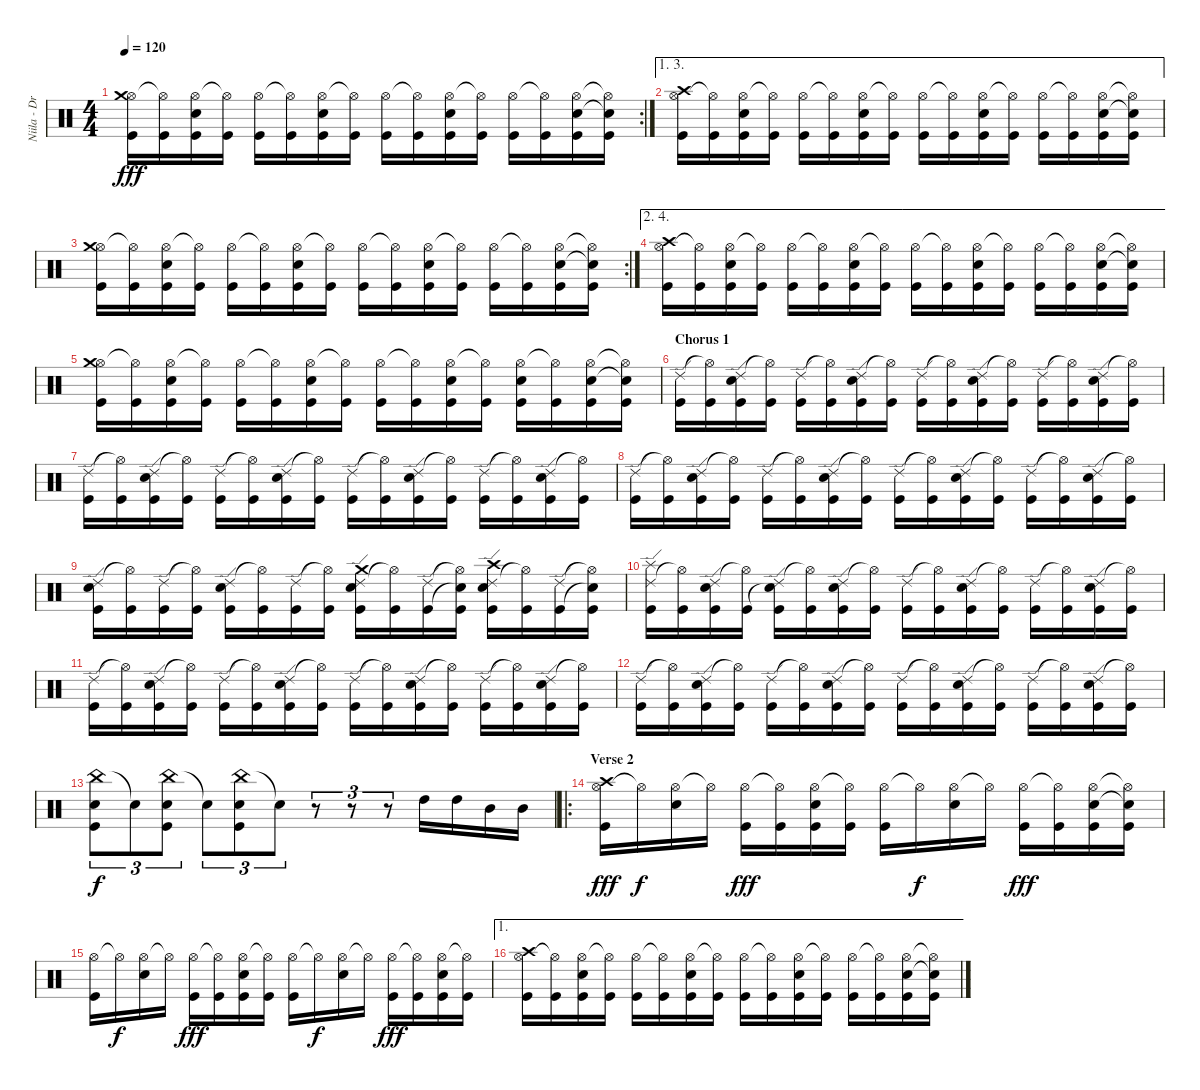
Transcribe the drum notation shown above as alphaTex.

\track ("Niila - Drums" "Niila - Dr") {instrument percussion}
\staff {score}
\articulation defaults
\rc 2
\ts (4 4)
\tempo 120
\clef neutral
\ks c
("Hi-Hat (open)" "Crash medium (hit)" "Kick (hit)").16{dy fff} ("Hi-Hat (open)"{t} "Kick (hit)").16 ("Hi-Hat (open)" "Snare (hit) 2" "Kick (hit)").16 ("Hi-Hat (open)"{t} "Kick (hit)").16 ("Hi-Hat (open)" "Kick (hit)").16 ("Hi-Hat (open)"{t} "Kick (hit)").16 ("Hi-Hat (open)" "Snare (hit) 2" "Kick (hit)").16 ("Hi-Hat (open)"{t} "Kick (hit)").16 ("Hi-Hat (open)" "Kick (hit)").16 ("Hi-Hat (open)"{t} "Kick (hit)").16 ("Hi-Hat (open)" "Snare (hit) 2" "Kick (hit)").16 ("Hi-Hat (open)"{t} "Kick (hit)").16 ("Hi-Hat (open)" "Kick (hit)").16 ("Hi-Hat (open)"{t} "Kick (hit)").16 ("Hi-Hat (open)" "Snare (hit) 2" "Kick (hit)").16 ("Hi-Hat (open)"{t} "Snare (hit)"{t} "Kick (hit)").16 |
\ae (1 3)
("Hi-Hat (open)" "Crash high (hit)" "Kick (hit)").16 ("Hi-Hat (open)"{t} "Kick (hit)").16 ("Hi-Hat (open)" "Snare (hit) 2" "Kick (hit)").16 ("Hi-Hat (open)"{t} "Kick (hit)").16 ("Hi-Hat (open)" "Kick (hit)").16 ("Hi-Hat (open)"{t} "Kick (hit)").16 ("Hi-Hat (open)" "Snare (hit) 2" "Kick (hit)").16 ("Hi-Hat (open)"{t} "Kick (hit)").16 ("Hi-Hat (open)" "Kick (hit)").16 ("Hi-Hat (open)"{t} "Kick (hit)").16 ("Hi-Hat (open)" "Snare (hit) 2" "Kick (hit)").16 ("Hi-Hat (open)"{t} "Kick (hit)").16 ("Hi-Hat (open)" "Kick (hit)").16 ("Hi-Hat (open)"{t} "Kick (hit)").16 ("Hi-Hat (open)" "Snare (hit) 2" "Kick (hit)").16 ("Hi-Hat (open)"{t} "Snare (hit)"{t} "Kick (hit)").16 |
\rc 2
("Hi-Hat (open)" "Crash medium (hit)" "Kick (hit)").16 ("Hi-Hat (open)"{t} "Kick (hit)").16 ("Hi-Hat (open)" "Snare (hit) 2" "Kick (hit)").16 ("Hi-Hat (open)"{t} "Kick (hit)").16 ("Hi-Hat (open)" "Kick (hit)").16 ("Hi-Hat (open)"{t} "Kick (hit)").16 ("Hi-Hat (open)" "Snare (hit) 2" "Kick (hit)").16 ("Hi-Hat (open)"{t} "Kick (hit)").16 ("Hi-Hat (open)" "Kick (hit)").16 ("Hi-Hat (open)"{t} "Kick (hit)").16 ("Hi-Hat (open)" "Snare (hit) 2" "Kick (hit)").16 ("Hi-Hat (open)"{t} "Kick (hit)").16 ("Hi-Hat (open)" "Kick (hit)").16 ("Hi-Hat (open)"{t} "Kick (hit)").16 ("Hi-Hat (open)" "Snare (hit) 2" "Kick (hit)").16 ("Hi-Hat (open)"{t} "Snare (hit)"{t} "Kick (hit)").16 |
\ae (2 4)
("Hi-Hat (open)" "Crash high (hit)" "Kick (hit)").16 ("Hi-Hat (open)"{t} "Kick (hit)").16 ("Hi-Hat (open)" "Snare (hit) 2" "Kick (hit)").16 ("Hi-Hat (open)"{t} "Kick (hit)").16 ("Hi-Hat (open)" "Kick (hit)").16 ("Hi-Hat (open)"{t} "Kick (hit)").16 ("Hi-Hat (open)" "Snare (hit) 2" "Kick (hit)").16 ("Hi-Hat (open)"{t} "Kick (hit)").16 ("Hi-Hat (open)" "Kick (hit)").16 ("Hi-Hat (open)"{t} "Kick (hit)").16 ("Hi-Hat (open)" "Snare (hit) 2" "Kick (hit)").16 ("Hi-Hat (open)"{t} "Kick (hit)").16 ("Hi-Hat (open)" "Kick (hit)").16 ("Hi-Hat (open)"{t} "Kick (hit)").16 ("Hi-Hat (open)" "Snare (hit) 2" "Kick (hit)").16 ("Hi-Hat (open)"{t} "Snare (hit)"{t} "Kick (hit)").16 |
("Hi-Hat (open)" "Crash medium (hit)" "Kick (hit)").16 ("Hi-Hat (open)"{t} "Kick (hit)").16 ("Hi-Hat (open)" "Snare (hit) 2" "Kick (hit)").16 ("Hi-Hat (open)"{t} "Kick (hit)").16 ("Hi-Hat (open)" "Kick (hit)").16 ("Hi-Hat (open)"{t} "Kick (hit)").16 ("Hi-Hat (open)" "Snare (hit) 2" "Kick (hit)").16 ("Hi-Hat (open)"{t} "Kick (hit)").16 ("Hi-Hat (open)" "Kick (hit)").16 ("Hi-Hat (open)"{t} "Kick (hit)").16 ("Hi-Hat (open)" "Snare (hit) 2" "Kick (hit)").16 ("Hi-Hat (open)"{t} "Kick (hit)").16 ("Hi-Hat (open)" "Snare (hit) 2" "Kick (hit)").16 ("Hi-Hat (open)"{t} "Kick (hit)").16 ("Hi-Hat (open)" "Snare (hit) 2" "Kick (hit)").16 ("Hi-Hat (open)"{t} "Snare (hit)"{t} "Kick (hit)").16 |
\section ("" "Chorus 1")
("Ride (edge) 2" "Kick (hit)").16 ("Hi-Hat (open)"{t} "Kick (hit)").16 ("Ride (edge) 2" "Snare (hit) 2" "Kick (hit)").16 ("Hi-Hat (open)"{t} "Kick (hit)").16 ("Ride (edge) 2" "Kick (hit)").16 ("Hi-Hat (open)"{t} "Kick (hit)").16 ("Ride (edge) 2" "Snare (hit) 2" "Kick (hit)").16 ("Hi-Hat (open)"{t} "Kick (hit)").16 ("Ride (edge) 2" "Kick (hit)").16 ("Hi-Hat (open)"{t} "Kick (hit)").16 ("Ride (edge) 2" "Snare (hit) 2" "Kick (hit)").16 ("Hi-Hat (open)"{t} "Kick (hit)").16 ("Ride (edge) 2" "Kick (hit)").16 ("Hi-Hat (open)"{t} "Kick (hit)").16 ("Ride (edge) 2" "Snare (hit) 2" "Kick (hit)").16 ("Hi-Hat (open)"{t} "Kick (hit)").16 |
("Ride (edge) 2" "Kick (hit)").16 ("Hi-Hat (open)"{t} "Kick (hit)").16 ("Ride (edge) 2" "Snare (hit) 2" "Kick (hit)").16 ("Hi-Hat (open)"{t} "Kick (hit)").16 ("Ride (edge) 2" "Kick (hit)").16 ("Hi-Hat (open)"{t} "Kick (hit)").16 ("Ride (edge) 2" "Snare (hit) 2" "Kick (hit)").16 ("Hi-Hat (open)"{t} "Kick (hit)").16 ("Ride (edge) 2" "Kick (hit)").16 ("Hi-Hat (open)"{t} "Kick (hit)").16 ("Ride (edge) 2" "Snare (hit) 2" "Kick (hit)").16 ("Hi-Hat (open)"{t} "Kick (hit)").16 ("Ride (edge) 2" "Kick (hit)").16 ("Hi-Hat (open)"{t} "Kick (hit)").16 ("Ride (edge) 2" "Snare (hit) 2" "Kick (hit)").16 ("Hi-Hat (open)"{t} "Kick (hit)").16 |
("Ride (edge) 2" "Kick (hit)").16 ("Hi-Hat (open)"{t} "Kick (hit)").16 ("Ride (edge) 2" "Snare (hit) 2" "Kick (hit)").16 ("Hi-Hat (open)"{t} "Kick (hit)").16 ("Ride (edge) 2" "Kick (hit)").16 ("Hi-Hat (open)"{t} "Kick (hit)").16 ("Ride (edge) 2" "Snare (hit) 2" "Kick (hit)").16 ("Hi-Hat (open)"{t} "Kick (hit)").16 ("Ride (edge) 2" "Kick (hit)").16 ("Hi-Hat (open)"{t} "Kick (hit)").16 ("Ride (edge) 2" "Snare (hit) 2" "Kick (hit)").16 ("Hi-Hat (open)"{t} "Kick (hit)").16 ("Ride (edge) 2" "Kick (hit)").16 ("Hi-Hat (open)"{t} "Kick (hit)").16 ("Ride (edge) 2" "Snare (hit) 2" "Kick (hit)").16 ("Hi-Hat (open)"{t} "Kick (hit)").16 |
("Ride (edge) 2" "Snare (hit) 2" "Kick (hit)").16 ("Hi-Hat (open)"{t} "Kick (hit)").16 ("Ride (edge) 2" "Kick (hit)").16 ("Hi-Hat (open)"{t} "Kick (hit)").16 ("Ride (edge) 2" "Snare (hit) 2" "Kick (hit)").16 ("Hi-Hat (open)"{t} "Kick (hit)").16 ("Ride (edge) 2" "Kick (hit)").16 ("Hi-Hat (open)"{t} "Kick (hit)").16 ("Ride (edge) 2" "Crash medium (hit)" "Snare (hit) 2" "Kick (hit)").16 ("Hi-Hat (open)"{t} "Kick (hit)").16 ("Ride (edge) 2" "Kick (hit)").16 ("Hi-Hat (open)"{t} "Snare (hit)"{t} "Kick (hit)").16 ("Ride (edge) 2" "Crash high (hit)" "Snare (hit) 2" "Kick (hit)").16 ("Hi-Hat (open)"{t} "Kick (hit)").16 ("Ride (edge) 2" "Kick (hit)").16 ("Hi-Hat (open)"{t} "Snare (hit)"{t} "Kick (hit)").16 |
("Ride (edge) 2" "Splash (hit)" "Kick (hit)").16 ("Hi-Hat (open)"{t} "Kick (hit)").16 ("Ride (edge) 2" "Snare (hit) 2" "Kick (hit)").16 ("Hi-Hat (open)"{t} "Kick (hit)").16 ("Ride (edge) 2" "Snare (hit)"{t} "Kick (hit)").16 ("Hi-Hat (open)"{t} "Kick (hit)").16 ("Ride (edge) 2" "Snare (hit) 2" "Kick (hit)").16 ("Hi-Hat (open)"{t} "Kick (hit)").16 ("Ride (edge) 2" "Kick (hit)").16 ("Hi-Hat (open)"{t} "Kick (hit)").16 ("Ride (edge) 2" "Snare (hit) 2" "Kick (hit)").16 ("Hi-Hat (open)"{t} "Kick (hit)").16 ("Ride (edge) 2" "Kick (hit)").16 ("Hi-Hat (open)"{t} "Kick (hit)").16 ("Ride (edge) 2" "Snare (hit) 2" "Kick (hit)").16 ("Hi-Hat (open)"{t} "Kick (hit)").16 |
("Ride (edge) 2" "Kick (hit)").16 ("Hi-Hat (open)"{t} "Kick (hit)").16 ("Ride (edge) 2" "Snare (hit) 2" "Kick (hit)").16 ("Hi-Hat (open)"{t} "Kick (hit)").16 ("Ride (edge) 2" "Kick (hit)").16 ("Hi-Hat (open)"{t} "Kick (hit)").16 ("Ride (edge) 2" "Snare (hit) 2" "Kick (hit)").16 ("Hi-Hat (open)"{t} "Kick (hit)").16 ("Ride (edge) 2" "Kick (hit)").16 ("Hi-Hat (open)"{t} "Kick (hit)").16 ("Ride (edge) 2" "Snare (hit) 2" "Kick (hit)").16 ("Hi-Hat (open)"{t} "Kick (hit)").16 ("Ride (edge) 2" "Kick (hit)").16 ("Hi-Hat (open)"{t} "Kick (hit)").16 ("Ride (edge) 2" "Snare (hit) 2" "Kick (hit)").16 ("Hi-Hat (open)"{t} "Kick (hit)").16 |
("Ride (edge) 2" "Kick (hit)").16 ("Hi-Hat (open)"{t} "Kick (hit)").16 ("Ride (edge) 2" "Snare (hit) 2" "Kick (hit)").16 ("Hi-Hat (open)"{t} "Kick (hit)").16 ("Ride (edge) 2" "Kick (hit)").16 ("Hi-Hat (open)"{t} "Kick (hit)").16 ("Ride (edge) 2" "Snare (hit) 2" "Kick (hit)").16 ("Hi-Hat (open)"{t} "Kick (hit)").16 ("Ride (edge) 2" "Kick (hit)").16 ("Hi-Hat (open)"{t} "Kick (hit)").16 ("Ride (edge) 2" "Snare (hit) 2" "Kick (hit)").16 ("Hi-Hat (open)"{t} "Kick (hit)").16 ("Ride (edge) 2" "Kick (hit)").16 ("Hi-Hat (open)"{t} "Kick (hit)").16 ("Ride (edge) 2" "Snare (hit) 2" "Kick (hit)").16 ("Hi-Hat (open)"{t} "Kick (hit)").16 |
("China (hit)" "Snare (hit) 2" "Kick (hit)").8{tu (3 2) dy f} "Snare (hit)"{t}.8{tu (3 2)} ("China (hit)" "Snare (hit) 2" "Kick (hit)").8{tu (3 2)} "Snare (hit)"{t}.8{tu (3 2)} ("China (hit)" "Snare (hit) 2" "Kick (hit)").8{tu (3 2)} "Snare (hit)"{t}.8{tu (3 2)} r.8{tu (3 2)} r.8{tu (3 2)} r.8{tu (3 2)} "High Tom (hit)".16 "High Tom (hit)".16 "Mid Tom (hit)".16 "Mid Tom (hit)".16 |
\ro
\section ("" "Verse 2")
("Hi-Hat (open)" "Crash high (hit)" "Kick (hit)").16{dy fff} "Hi-Hat (open)"{t}.16{dy f} ("Hi-Hat (open)" "Snare (hit) 2").16 "Hi-Hat (open)"{t}.16 ("Hi-Hat (open)" "Kick (hit)").16{dy fff} ("Hi-Hat (open)"{t} "Kick (hit)").16 ("Hi-Hat (open)" "Snare (hit) 2" "Kick (hit)").16 ("Hi-Hat (open)"{t} "Kick (hit)").16 ("Hi-Hat (open)" "Kick (hit)").16 "Hi-Hat (open)"{t}.16{dy f} ("Hi-Hat (open)" "Snare (hit) 2").16 "Hi-Hat (open)"{t}.16 ("Hi-Hat (open)" "Kick (hit)").16{dy fff} ("Hi-Hat (open)"{t} "Kick (hit)").16 ("Hi-Hat (open)" "Snare (hit) 2" "Kick (hit)").16 ("Hi-Hat (open)"{t} "Snare (hit)"{t} "Kick (hit)").16 |
("Hi-Hat (open)" "Kick (hit)").16 "Hi-Hat (open)"{t}.16{dy f} ("Hi-Hat (open)" "Snare (hit) 2").16 "Hi-Hat (open)"{t}.16 ("Hi-Hat (open)" "Kick (hit)").16{dy fff} ("Hi-Hat (open)"{t} "Kick (hit)").16 ("Hi-Hat (open)" "Snare (hit) 2" "Kick (hit)").16 ("Hi-Hat (open)"{t} "Kick (hit)").16 ("Hi-Hat (open)" "Kick (hit)").16 "Hi-Hat (open)"{t}.16{dy f} ("Hi-Hat (open)" "Snare (hit) 2").16 "Hi-Hat (open)"{t}.16 ("Hi-Hat (open)" "Kick (hit)").16{dy fff} ("Hi-Hat (open)"{t} "Kick (hit)").16 ("Hi-Hat (open)" "Snare (hit) 2" "Kick (hit)").16 ("Hi-Hat (open)"{t} "Kick (hit)").16 |
\ae 1
("Hi-Hat (open)" "Crash high (hit)" "Kick (hit)").16 ("Hi-Hat (open)"{t} "Kick (hit)").16 ("Hi-Hat (open)" "Snare (hit) 2" "Kick (hit)").16 ("Hi-Hat (open)"{t} "Kick (hit)").16 ("Hi-Hat (open)" "Kick (hit)").16 ("Hi-Hat (open)"{t} "Kick (hit)").16 ("Hi-Hat (open)" "Snare (hit) 2" "Kick (hit)").16 ("Hi-Hat (open)"{t} "Kick (hit)").16 ("Hi-Hat (open)" "Kick (hit)").16 ("Hi-Hat (open)"{t} "Kick (hit)").16 ("Hi-Hat (open)" "Snare (hit) 2" "Kick (hit)").16 ("Hi-Hat (open)"{t} "Kick (hit)").16 ("Hi-Hat (open)" "Kick (hit)").16 ("Hi-Hat (open)"{t} "Kick (hit)").16 ("Hi-Hat (open)" "Snare (hit) 2" "Kick (hit)").16 ("Hi-Hat (open)"{t} "Snare (hit)"{t} "Kick (hit)").16
